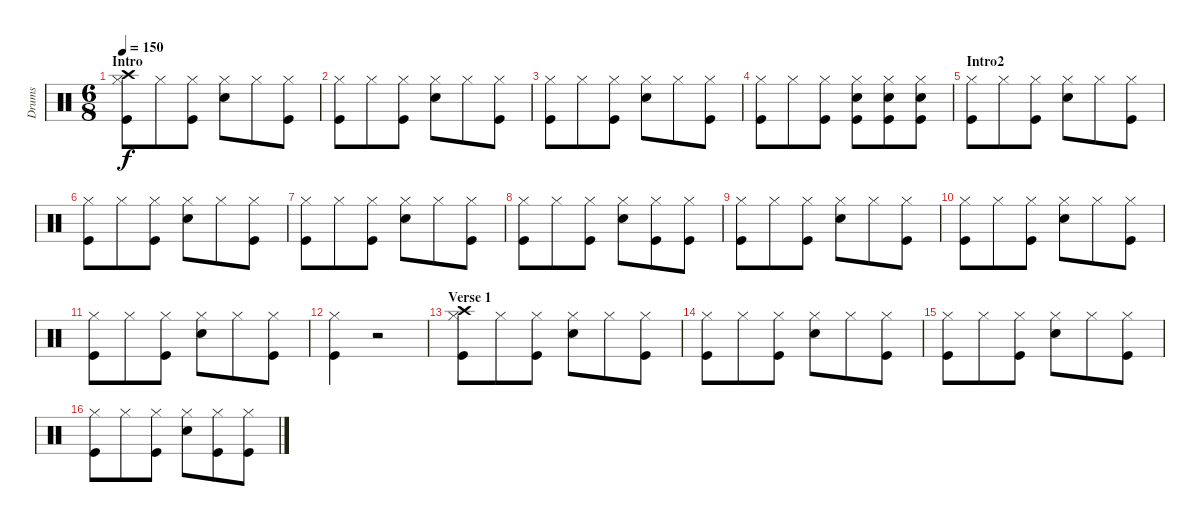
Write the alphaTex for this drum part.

\track ("Drums" "Drums") {instrument percussion}
\staff {score}
\articulation defaults
\ts (6 8)
\section ("" "Intro")
\tempo 150
\clef neutral
\ks c
("Hi-Hat (closed)" "Crash high (hit)" "Kick (hit)").8{dy f} "Hi-Hat (closed)".8 ("Hi-Hat (closed)" "Kick (hit)").8 ("Hi-Hat (closed)" "Snare (hit) 2").8 "Hi-Hat (closed)".8 ("Hi-Hat (closed)" "Kick (hit)").8 |
("Hi-Hat (closed)" "Kick (hit)").8 "Hi-Hat (closed)".8 ("Hi-Hat (closed)" "Kick (hit)").8 ("Hi-Hat (closed)" "Snare (hit) 2").8 "Hi-Hat (closed)".8 ("Hi-Hat (closed)" "Kick (hit)").8 |
("Hi-Hat (closed)" "Kick (hit)").8 "Hi-Hat (closed)".8 ("Hi-Hat (closed)" "Kick (hit)").8 ("Hi-Hat (closed)" "Snare (hit) 2").8 "Hi-Hat (closed)".8 ("Hi-Hat (closed)" "Kick (hit)").8 |
("Hi-Hat (closed)" "Kick (hit)").8 "Hi-Hat (closed)".8 ("Hi-Hat (closed)" "Kick (hit)").8 ("Hi-Hat (closed)" "Snare (hit) 2" "Kick (hit)").8 ("Hi-Hat (closed)" "Snare (hit) 2" "Kick (hit)").8 ("Hi-Hat (closed)" "Snare (hit) 2" "Kick (hit)").8 |
\section ("" "Intro2")
("Hi-Hat (closed)" "Kick (hit)").8 "Hi-Hat (closed)".8 ("Hi-Hat (closed)" "Kick (hit)").8 ("Hi-Hat (closed)" "Snare (hit) 2").8 "Hi-Hat (closed)".8 ("Hi-Hat (closed)" "Kick (hit)").8 |
("Hi-Hat (closed)" "Kick (hit)").8 "Hi-Hat (closed)".8 ("Hi-Hat (closed)" "Kick (hit)").8 ("Hi-Hat (closed)" "Snare (hit) 2").8 "Hi-Hat (closed)".8 ("Hi-Hat (closed)" "Kick (hit)").8 |
("Hi-Hat (closed)" "Kick (hit)").8 "Hi-Hat (closed)".8 ("Hi-Hat (closed)" "Kick (hit)").8 ("Hi-Hat (closed)" "Snare (hit) 2").8 "Hi-Hat (closed)".8 ("Hi-Hat (closed)" "Kick (hit)").8 |
("Hi-Hat (closed)" "Kick (hit)").8 "Hi-Hat (closed)".8 ("Hi-Hat (closed)" "Kick (hit)").8 ("Hi-Hat (closed)" "Snare (hit) 2").8 ("Hi-Hat (closed)" "Kick (hit)").8 ("Hi-Hat (closed)" "Kick (hit)").8 |
("Hi-Hat (closed)" "Kick (hit)").8 "Hi-Hat (closed)".8 ("Hi-Hat (closed)" "Kick (hit)").8 ("Hi-Hat (closed)" "Snare (hit) 2").8 "Hi-Hat (closed)".8 ("Hi-Hat (closed)" "Kick (hit)").8 |
("Hi-Hat (closed)" "Kick (hit)").8 "Hi-Hat (closed)".8 ("Hi-Hat (closed)" "Kick (hit)").8 ("Hi-Hat (closed)" "Snare (hit) 2").8 "Hi-Hat (closed)".8 ("Hi-Hat (closed)" "Kick (hit)").8 |
("Hi-Hat (closed)" "Kick (hit)").8 "Hi-Hat (closed)".8 ("Hi-Hat (closed)" "Kick (hit)").8 ("Hi-Hat (closed)" "Snare (hit) 2").8 "Hi-Hat (closed)".8 ("Hi-Hat (closed)" "Kick (hit)").8 |
("Hi-Hat (closed)" "Kick (hit)").4 r.2 |
\section ("" "Verse 1")
("Hi-Hat (closed)" "Crash high (hit)" "Kick (hit)").8 "Hi-Hat (closed)".8 ("Hi-Hat (closed)" "Kick (hit)").8 ("Hi-Hat (closed)" "Snare (hit) 2").8 "Hi-Hat (closed)".8 ("Hi-Hat (closed)" "Kick (hit)").8 |
("Hi-Hat (closed)" "Kick (hit)").8 "Hi-Hat (closed)".8 ("Hi-Hat (closed)" "Kick (hit)").8 ("Hi-Hat (closed)" "Snare (hit) 2").8 "Hi-Hat (closed)".8 ("Hi-Hat (closed)" "Kick (hit)").8 |
("Hi-Hat (closed)" "Kick (hit)").8 "Hi-Hat (closed)".8 ("Hi-Hat (closed)" "Kick (hit)").8 ("Hi-Hat (closed)" "Snare (hit) 2").8 "Hi-Hat (closed)".8 ("Hi-Hat (closed)" "Kick (hit)").8 |
("Hi-Hat (closed)" "Kick (hit)").8 "Hi-Hat (closed)".8 ("Hi-Hat (closed)" "Kick (hit)").8 ("Hi-Hat (closed)" "Snare (hit) 2").8 ("Hi-Hat (closed)" "Kick (hit)").8 ("Hi-Hat (closed)" "Kick (hit)").8
